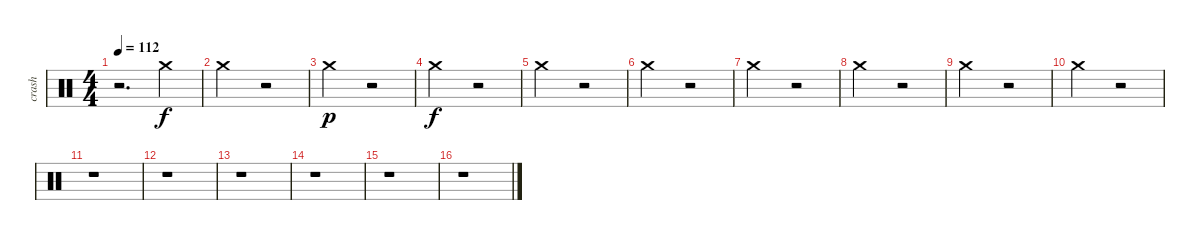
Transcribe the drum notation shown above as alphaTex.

\track ("crash" "crash") {instrument percussion}
\staff {score}
\articulation defaults
\ts (4 4)
\tempo 112
\clef neutral
\ks c
r.2{d dy f} "Crash medium (hit)".4 |
"Crash medium (hit)".2 r.2 |
"Crash medium (hit)".2{dy p} r.2 |
"Crash medium (hit)".2{dy f} r.2 |
"Crash medium (hit)".2 r.2 |
"Crash medium (hit)".2 r.2 |
"Crash medium (hit)".2 r.2 |
"Crash medium (hit)".2 r.2 |
"Crash medium (hit)".2 r.2 |
"Crash medium (hit)".2 r.2 |
r.1 |
r.1 |
r.1 |
r.1 |
r.1 |
r.1
